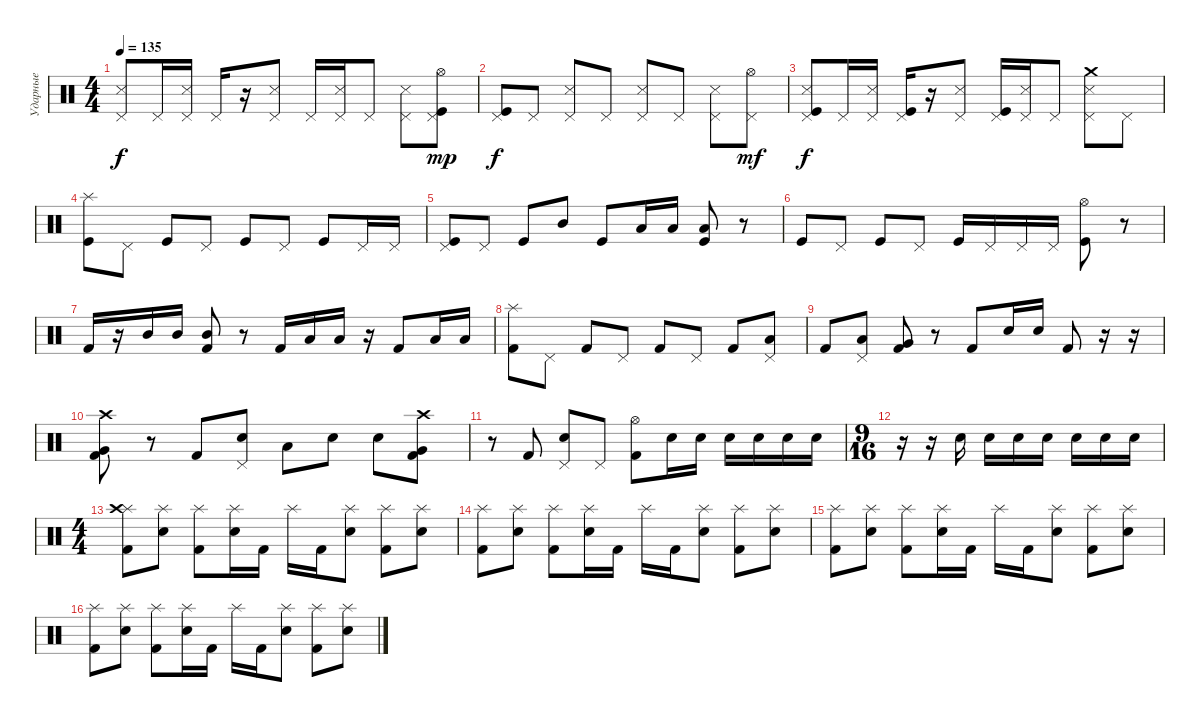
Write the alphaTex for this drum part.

\track ("Ударные" "Ударные") {instrument percussion}
\staff {score}
\articulation defaults
\ts (4 4)
\tempo 135
\clef neutral
\ks c
("Metronome (hit)" "Pedal Hi-Hat (hit)").8{dy f} "Pedal Hi-Hat (hit)".16 ("Metronome (hit)" "Pedal Hi-Hat (hit)").16 "Pedal Hi-Hat (hit)".16 r.16 ("Metronome (hit)" "Pedal Hi-Hat (hit)").8 "Pedal Hi-Hat (hit)".16 ("Metronome (hit)" "Pedal Hi-Hat (hit)").16 "Pedal Hi-Hat (hit)".8 ("Metronome (hit)" "Pedal Hi-Hat (hit)").8 ("Pedal Hi-Hat (hit)" "Kick (hit)" "Hi-Hat (open)").8{dy mp} |
("Pedal Hi-Hat (hit)" "Kick (hit)").8{dy f} "Pedal Hi-Hat (hit)".8 ("Metronome (hit)" "Pedal Hi-Hat (hit)").8 "Pedal Hi-Hat (hit)".8 ("Metronome (hit)" "Pedal Hi-Hat (hit)").8 "Pedal Hi-Hat (hit)".8 ("Metronome (hit)" "Pedal Hi-Hat (hit)").8 ("Pedal Hi-Hat (hit)" "Hi-Hat (open)").8{dy mf} |
("Metronome (hit)" "Pedal Hi-Hat (hit)" "Kick (hit)").8{dy f} "Pedal Hi-Hat (hit)".16 ("Metronome (hit)" "Pedal Hi-Hat (hit)").16 ("Pedal Hi-Hat (hit)" "Kick (hit)").16 r.16 ("Metronome (hit)" "Pedal Hi-Hat (hit)").8 ("Pedal Hi-Hat (hit)" "Kick (hit)").16 ("Metronome (hit)" "Pedal Hi-Hat (hit)").16 "Pedal Hi-Hat (hit)".8 ("Metronome (hit)" "Pedal Hi-Hat (hit)" "Crash medium (hit)").8 "Pedal Hi-Hat (hit)".8 |
("Splash (hit)" "Kick (hit)").8 "Pedal Hi-Hat (hit)".8 "Kick (hit)".8 "Pedal Hi-Hat (hit)".8 "Kick (hit)".8 "Pedal Hi-Hat (hit)".8 "Kick (hit)".8 "Pedal Hi-Hat (hit)".16 "Pedal Hi-Hat (hit)".16 |
("Pedal Hi-Hat (hit)" "Kick (hit)").8 "Pedal Hi-Hat (hit)".8 "Kick (hit)".8 "Mid Tom (hit)".8 "Kick (hit)".8 "Low Floor Tom (hit)".16 "Low Floor Tom (hit)".16 ("Kick (hit)" "Low Floor Tom (hit)").8 r.8 |
"Kick (hit)".8 "Pedal Hi-Hat (hit)".8 "Kick (hit)".8 "Pedal Hi-Hat (hit)".8 "Kick (hit)".16 "Pedal Hi-Hat (hit)".16 "Pedal Hi-Hat (hit)".16 "Pedal Hi-Hat (hit)".16 ("Hi-Hat (open)" "Kick (hit)").8 r.8 |
"Kick (hit) 2".16 r.16 "Mid Tom (hit)".16 "Mid Tom (hit)".16 ("Kick (hit) 2" "Mid Tom (hit)").8 r.8 "Kick (hit) 2".16 "Low Tom (hit)".16 "Low Tom (hit)".16 r.16 "Kick (hit) 2".8 "Low Tom (hit)".16 "Low Tom (hit)".16 |
("Splash (hit)" "Kick (hit) 2").8 "Pedal Hi-Hat (hit)".8 "Kick (hit) 2".8 "Pedal Hi-Hat (hit)".8 "Kick (hit) 2".8 "Pedal Hi-Hat (hit)".8 "Kick (hit) 2".8 ("Pedal Hi-Hat (hit)" "Low Tom (hit)").8 |
"Kick (hit) 2".8 ("Pedal Hi-Hat (hit)" "Low Tom (hit)").8 ("Kick (hit) 2" "Very Low Tom (hit)").8 r.8 "Kick (hit) 2".8 "Electric Snare (hit)".16 "Electric Snare (hit)".16 "Kick (hit) 2".8 r.16 r.16 |
("Crash high (hit)" "Kick (hit) 2" "Very Low Tom (hit)").8 r.8 "Kick (hit) 2".8 ("Pedal Hi-Hat (hit)" "Electric Snare (hit)").8 "Low Tom (hit)".8 "Electric Snare (hit)".8 "Electric Snare (hit)".8 ("Crash high (hit)" "Kick (hit) 2" "Very Low Tom (hit)").8 |
r.8 "Kick (hit) 2".8 ("Pedal Hi-Hat (hit)" "Electric Snare (hit)").8 "Pedal Hi-Hat (hit)".8 ("Hi-Hat (open)" "Kick (hit) 2").8 "Electric Snare (hit)".16 "Electric Snare (hit)".16 "Electric Snare (hit)".16 "Electric Snare (hit)".16 "Electric Snare (hit)".16 "Electric Snare (hit)".16 |
\ts (9 16)
r.16 r.16 "Electric Snare (hit)".16 "Electric Snare (hit)".16 "Electric Snare (hit)".16 "Electric Snare (hit)".16 "Electric Snare (hit)".16 "Electric Snare (hit)".16 "Electric Snare (hit)".16 |
\ts (4 4)
("Splash (hit)" "Crash high (hit)" "Kick (hit) 2").8 ("Splash (hit)" "Electric Snare (hit)").8 ("Splash (hit)" "Kick (hit) 2").8 ("Splash (hit)" "Electric Snare (hit)").16 "Kick (hit) 2".16 "Splash (hit)".16 "Kick (hit) 2".16 ("Splash (hit)" "Electric Snare (hit)").8 ("Splash (hit)" "Kick (hit) 2").8 ("Splash (hit)" "Electric Snare (hit)").8 |
("Splash (hit)" "Kick (hit) 2").8 ("Splash (hit)" "Electric Snare (hit)").8 ("Splash (hit)" "Kick (hit) 2").8 ("Splash (hit)" "Electric Snare (hit)").16 "Kick (hit) 2".16 "Splash (hit)".16 "Kick (hit) 2".16 ("Splash (hit)" "Electric Snare (hit)").8 ("Splash (hit)" "Kick (hit) 2").8 ("Splash (hit)" "Electric Snare (hit)").8 |
("Splash (hit)" "Kick (hit) 2").8 ("Splash (hit)" "Electric Snare (hit)").8 ("Splash (hit)" "Kick (hit) 2").8 ("Splash (hit)" "Electric Snare (hit)").16 "Kick (hit) 2".16 "Splash (hit)".16 "Kick (hit) 2".16 ("Splash (hit)" "Electric Snare (hit)").8 ("Splash (hit)" "Kick (hit) 2").8 ("Splash (hit)" "Electric Snare (hit)").8 |
("Splash (hit)" "Kick (hit) 2").8 ("Splash (hit)" "Electric Snare (hit)").8 ("Splash (hit)" "Kick (hit) 2").8 ("Splash (hit)" "Electric Snare (hit)").16 "Kick (hit) 2".16 "Splash (hit)".16 "Kick (hit) 2".16 ("Splash (hit)" "Electric Snare (hit)").8 ("Splash (hit)" "Kick (hit) 2").8 ("Splash (hit)" "Electric Snare (hit)").8
